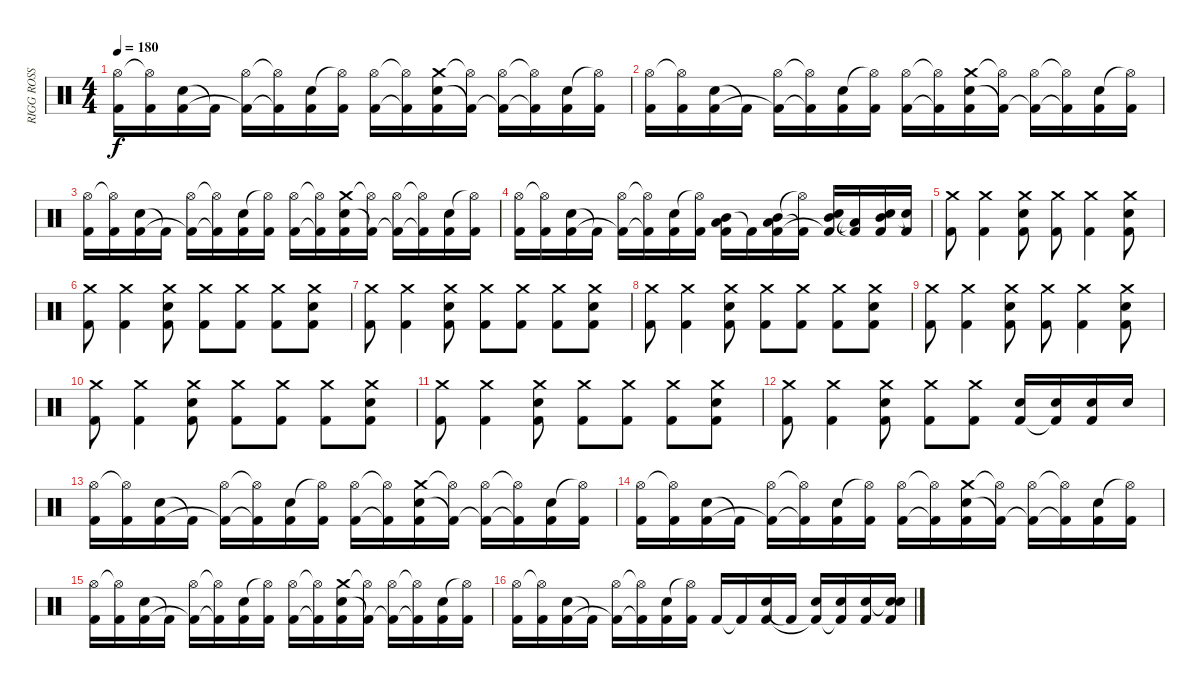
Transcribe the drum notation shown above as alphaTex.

\track ("RIGG ROSS" "RIGG ROSS") {instrument percussion}
\staff {score}
\articulation defaults
\ts (4 4)
\tempo 180
\clef neutral
\ks c
("Hi-Hat (open)" "Kick (hit) 2").16{dy f} ("Hi-Hat (open)"{t} "Kick (hit) 2").16 ("Electric Snare (hit)" "Kick (hit) 2").16 "Kick (hit) 2"{t}.16 ("Hi-Hat (open)" "Kick (hit) 2"{t}).16 ("Hi-Hat (open)"{t} "Kick (hit) 2"{t}).16 ("Electric Snare (hit)" "Kick (hit) 2").16 ("Hi-Hat (open)"{t} "Kick (hit) 2").16 ("Hi-Hat (open)" "Kick (hit) 2").16 ("Hi-Hat (open)"{t} "Kick (hit) 2"{t}).16 ("Crash medium (hit)" "Electric Snare (hit)" "Kick (hit) 2").16 ("Hi-Hat (open)"{t} "Kick (hit) 2"{t}).16 ("Hi-Hat (open)" "Kick (hit) 2"{t}).16 ("Hi-Hat (open)"{t} "Kick (hit) 2"{t}).16 ("Electric Snare (hit)" "Kick (hit) 2").16 ("Hi-Hat (open)"{t} "Kick (hit) 2").16 |
("Hi-Hat (open)" "Kick (hit) 2").16 ("Hi-Hat (open)"{t} "Kick (hit) 2").16 ("Electric Snare (hit)" "Kick (hit) 2").16 "Kick (hit) 2"{t}.16 ("Hi-Hat (open)" "Kick (hit) 2"{t}).16 ("Hi-Hat (open)"{t} "Kick (hit) 2"{t}).16 ("Electric Snare (hit)" "Kick (hit) 2").16 ("Hi-Hat (open)"{t} "Kick (hit) 2").16 ("Hi-Hat (open)" "Kick (hit) 2").16 ("Hi-Hat (open)"{t} "Kick (hit) 2"{t}).16 ("Crash medium (hit)" "Electric Snare (hit)" "Kick (hit) 2").16 ("Hi-Hat (open)"{t} "Kick (hit) 2"{t}).16 ("Hi-Hat (open)" "Kick (hit) 2"{t}).16 ("Hi-Hat (open)"{t} "Kick (hit) 2"{t}).16 ("Electric Snare (hit)" "Kick (hit) 2").16 ("Hi-Hat (open)"{t} "Kick (hit) 2").16 |
("Hi-Hat (open)" "Kick (hit) 2").16 ("Hi-Hat (open)"{t} "Kick (hit) 2").16 ("Electric Snare (hit)" "Kick (hit) 2").16 "Kick (hit) 2"{t}.16 ("Hi-Hat (open)" "Kick (hit) 2"{t}).16 ("Hi-Hat (open)"{t} "Kick (hit) 2"{t}).16 ("Electric Snare (hit)" "Kick (hit) 2").16 ("Hi-Hat (open)"{t} "Kick (hit) 2").16 ("Hi-Hat (open)" "Kick (hit) 2").16 ("Hi-Hat (open)"{t} "Kick (hit) 2"{t}).16 ("Crash medium (hit)" "Electric Snare (hit)" "Kick (hit) 2").16 ("Hi-Hat (open)"{t} "Kick (hit) 2"{t}).16 ("Hi-Hat (open)" "Kick (hit) 2"{t}).16 ("Hi-Hat (open)"{t} "Kick (hit) 2"{t}).16 ("Electric Snare (hit)" "Kick (hit) 2").16 ("Hi-Hat (open)"{t} "Kick (hit) 2").16 |
("Hi-Hat (open)" "Kick (hit) 2").16 ("Hi-Hat (open)"{t} "Kick (hit) 2").16 ("Electric Snare (hit)" "Kick (hit) 2").16 "Kick (hit) 2"{t}.16 ("Hi-Hat (open)" "Kick (hit) 2"{t}).16 ("Hi-Hat (open)"{t} "Kick (hit) 2"{t}).16 ("Electric Snare (hit)" "Kick (hit) 2").16 ("Hi-Hat (open)"{t} "Kick (hit) 2").16 ("Mid Tom (hit)" "Low Tom (hit)" "Kick (hit) 2").16 "Kick (hit) 2"{t}.16 ("Mid Tom (hit)" "Low Tom (hit)" "Kick (hit) 2").16 ("Hi-Hat (open)"{t} "Kick (hit) 2"{t}).16 ("Mid Tom (hit)" "Electric Snare (hit)" "Kick (hit) 2"{t}).16 ("Low Tom (hit)"{t} "Kick (hit) 2"{t}).16 ("Mid Tom (hit)" "Electric Snare (hit)" "Kick (hit) 2").16 ("Snare (hit)"{t} "Kick (hit) 2").16 |
("Crash medium (hit)" "Kick (hit) 2").8 ("Crash medium (hit)" "Kick (hit) 2").4 ("Crash medium (hit)" "Electric Snare (hit)" "Kick (hit) 2").8 ("Crash medium (hit)" "Kick (hit) 2").8 ("Crash medium (hit)" "Kick (hit) 2").4 ("Crash medium (hit)" "Electric Snare (hit)" "Kick (hit) 2").8 |
("Crash medium (hit)" "Kick (hit) 2").8 ("Crash medium (hit)" "Kick (hit) 2").4 ("Crash medium (hit)" "Electric Snare (hit)" "Kick (hit) 2").8 ("Crash medium (hit)" "Kick (hit) 2").8 ("Crash medium (hit)" "Kick (hit) 2").8 ("Crash medium (hit)" "Kick (hit) 2").8 ("Crash medium (hit)" "Electric Snare (hit)" "Kick (hit) 2").8 |
("Crash medium (hit)" "Kick (hit) 2").8 ("Crash medium (hit)" "Kick (hit) 2").4 ("Crash medium (hit)" "Electric Snare (hit)" "Kick (hit) 2").8 ("Crash medium (hit)" "Kick (hit) 2").8 ("Crash medium (hit)" "Kick (hit) 2").8 ("Crash medium (hit)" "Kick (hit) 2").8 ("Crash medium (hit)" "Electric Snare (hit)" "Kick (hit) 2").8 |
("Crash medium (hit)" "Kick (hit) 2").8 ("Crash medium (hit)" "Kick (hit) 2").4 ("Crash medium (hit)" "Electric Snare (hit)" "Kick (hit) 2").8 ("Crash medium (hit)" "Kick (hit) 2").8 ("Crash medium (hit)" "Kick (hit) 2").8 ("Crash medium (hit)" "Kick (hit) 2").8 ("Crash medium (hit)" "Electric Snare (hit)" "Kick (hit) 2").8 |
("Crash medium (hit)" "Kick (hit) 2").8 ("Crash medium (hit)" "Kick (hit) 2").4 ("Crash medium (hit)" "Electric Snare (hit)" "Kick (hit) 2").8 ("Crash medium (hit)" "Kick (hit) 2").8 ("Crash medium (hit)" "Kick (hit) 2").4 ("Crash medium (hit)" "Electric Snare (hit)" "Kick (hit) 2").8 |
("Crash medium (hit)" "Kick (hit) 2").8 ("Crash medium (hit)" "Kick (hit) 2").4 ("Crash medium (hit)" "Electric Snare (hit)" "Kick (hit) 2").8 ("Crash medium (hit)" "Kick (hit) 2").8 ("Crash medium (hit)" "Kick (hit) 2").8 ("Crash medium (hit)" "Kick (hit) 2").8 ("Crash medium (hit)" "Electric Snare (hit)" "Kick (hit) 2").8 |
("Crash medium (hit)" "Kick (hit) 2").8 ("Crash medium (hit)" "Kick (hit) 2").4 ("Crash medium (hit)" "Electric Snare (hit)" "Kick (hit) 2").8 ("Crash medium (hit)" "Kick (hit) 2").8 ("Crash medium (hit)" "Kick (hit) 2").8 ("Crash medium (hit)" "Kick (hit) 2").8 ("Crash medium (hit)" "Electric Snare (hit)" "Kick (hit) 2").8 |
("Crash medium (hit)" "Kick (hit) 2").8 ("Crash medium (hit)" "Kick (hit) 2").4 ("Crash medium (hit)" "Electric Snare (hit)" "Kick (hit) 2").8 ("Crash medium (hit)" "Kick (hit) 2").8 ("Crash medium (hit)" "Kick (hit) 2").8 ("Electric Snare (hit)" "Kick (hit) 2").16 ("Electric Snare (hit)" "Kick (hit) 2"{t}).16 ("Electric Snare (hit)" "Kick (hit) 2").16 "Electric Snare (hit)".16 |
("Hi-Hat (open)" "Kick (hit) 2").16 ("Hi-Hat (open)"{t} "Kick (hit) 2").16 ("Electric Snare (hit)" "Kick (hit) 2").16 "Kick (hit) 2"{t}.16 ("Hi-Hat (open)" "Kick (hit) 2"{t}).16 ("Hi-Hat (open)"{t} "Kick (hit) 2"{t}).16 ("Electric Snare (hit)" "Kick (hit) 2").16 ("Hi-Hat (open)"{t} "Kick (hit) 2").16 ("Hi-Hat (open)" "Kick (hit) 2").16 ("Hi-Hat (open)"{t} "Kick (hit) 2"{t}).16 ("Crash medium (hit)" "Electric Snare (hit)" "Kick (hit) 2").16 ("Hi-Hat (open)"{t} "Kick (hit) 2"{t}).16 ("Hi-Hat (open)" "Kick (hit) 2"{t}).16 ("Hi-Hat (open)"{t} "Kick (hit) 2"{t}).16 ("Electric Snare (hit)" "Kick (hit) 2").16 ("Hi-Hat (open)"{t} "Kick (hit) 2").16 |
("Hi-Hat (open)" "Kick (hit) 2").16 ("Hi-Hat (open)"{t} "Kick (hit) 2").16 ("Electric Snare (hit)" "Kick (hit) 2").16 "Kick (hit) 2"{t}.16 ("Hi-Hat (open)" "Kick (hit) 2"{t}).16 ("Hi-Hat (open)"{t} "Kick (hit) 2"{t}).16 ("Electric Snare (hit)" "Kick (hit) 2").16 ("Hi-Hat (open)"{t} "Kick (hit) 2").16 ("Hi-Hat (open)" "Kick (hit) 2").16 ("Hi-Hat (open)"{t} "Kick (hit) 2"{t}).16 ("Crash medium (hit)" "Electric Snare (hit)" "Kick (hit) 2").16 ("Hi-Hat (open)"{t} "Kick (hit) 2"{t}).16 ("Hi-Hat (open)" "Kick (hit) 2"{t}).16 ("Hi-Hat (open)"{t} "Kick (hit) 2"{t}).16 ("Electric Snare (hit)" "Kick (hit) 2").16 ("Hi-Hat (open)"{t} "Kick (hit) 2").16 |
("Hi-Hat (open)" "Kick (hit) 2").16 ("Hi-Hat (open)"{t} "Kick (hit) 2").16 ("Electric Snare (hit)" "Kick (hit) 2").16 "Kick (hit) 2"{t}.16 ("Hi-Hat (open)" "Kick (hit) 2"{t}).16 ("Hi-Hat (open)"{t} "Kick (hit) 2"{t}).16 ("Electric Snare (hit)" "Kick (hit) 2").16 ("Hi-Hat (open)"{t} "Kick (hit) 2").16 ("Hi-Hat (open)" "Kick (hit) 2").16 ("Hi-Hat (open)"{t} "Kick (hit) 2"{t}).16 ("Crash medium (hit)" "Electric Snare (hit)" "Kick (hit) 2").16 ("Hi-Hat (open)"{t} "Kick (hit) 2"{t}).16 ("Hi-Hat (open)" "Kick (hit) 2"{t}).16 ("Hi-Hat (open)"{t} "Kick (hit) 2"{t}).16 ("Electric Snare (hit)" "Kick (hit) 2").16 ("Hi-Hat (open)"{t} "Kick (hit) 2").16 |
("Hi-Hat (open)" "Kick (hit) 2").16 ("Hi-Hat (open)"{t} "Kick (hit) 2").16 ("Electric Snare (hit)" "Kick (hit) 2").16 "Kick (hit) 2"{t}.16 ("Hi-Hat (open)" "Kick (hit) 2"{t}).16 ("Hi-Hat (open)"{t} "Kick (hit) 2"{t}).16 ("Electric Snare (hit)" "Kick (hit) 2").16 ("Hi-Hat (open)"{t} "Kick (hit) 2").16 "Kick (hit) 2".16 "Kick (hit) 2"{t}.16 ("Electric Snare (hit)" "Kick (hit) 2").16 "Kick (hit) 2"{t}.16 ("Electric Snare (hit)" "Kick (hit) 2"{t}).16 ("Electric Snare (hit)" "Kick (hit) 2"{t}).16 ("Electric Snare (hit)" "Kick (hit) 2").16 ("Snare (hit)"{t} "Electric Snare (hit)" "Kick (hit) 2").16
